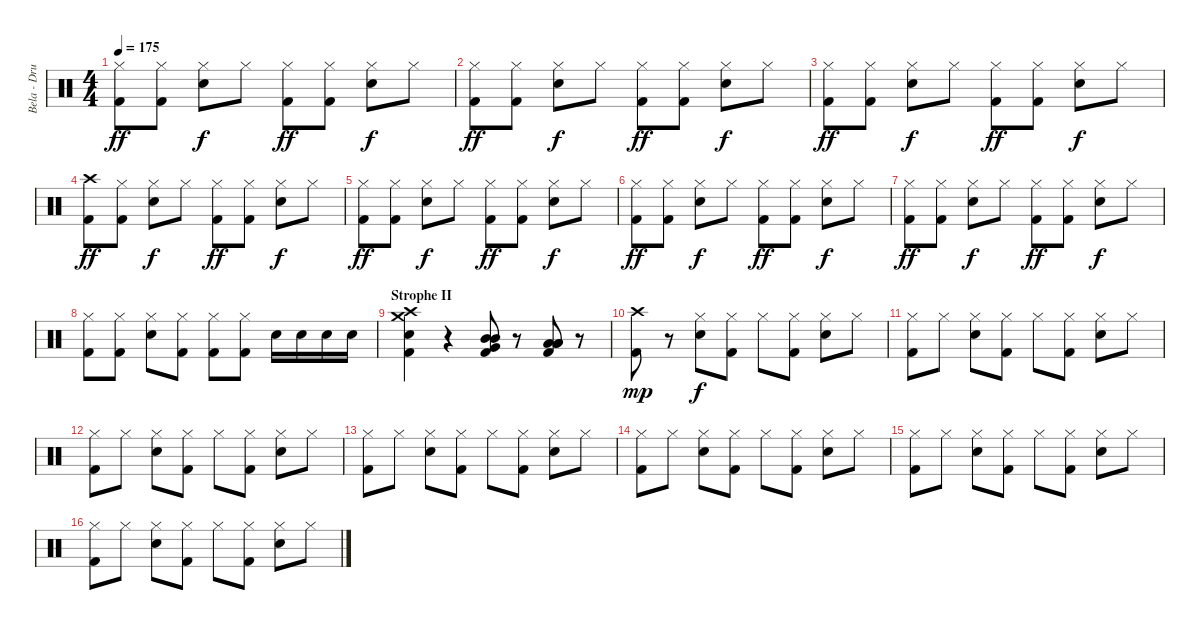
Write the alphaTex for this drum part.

\track ("Bela - Drums" "Bela - Dru") {instrument percussion}
\staff {score}
\articulation defaults
\ts (4 4)
\tempo 175
\clef neutral
\ks c
("Hi-Hat (closed)" "Kick (hit) 2").8{dy ff} ("Hi-Hat (closed)" "Kick (hit) 2").8 ("Hi-Hat (closed)" "Electric Snare (hit)").8{dy f} "Hi-Hat (closed)".8 ("Hi-Hat (closed)" "Kick (hit) 2").8{dy ff} ("Hi-Hat (closed)" "Kick (hit) 2").8 ("Hi-Hat (closed)" "Electric Snare (hit)").8{dy f} "Hi-Hat (closed)".8 |
("Hi-Hat (closed)" "Kick (hit) 2").8{dy ff} ("Hi-Hat (closed)" "Kick (hit) 2").8 ("Hi-Hat (closed)" "Electric Snare (hit)").8{dy f} "Hi-Hat (closed)".8 ("Hi-Hat (closed)" "Kick (hit) 2").8{dy ff} ("Hi-Hat (closed)" "Kick (hit) 2").8 ("Hi-Hat (closed)" "Electric Snare (hit)").8{dy f} "Hi-Hat (closed)".8 |
("Hi-Hat (closed)" "Kick (hit) 2").8{dy ff} ("Hi-Hat (closed)" "Kick (hit) 2").8 ("Hi-Hat (closed)" "Electric Snare (hit)").8{dy f} "Hi-Hat (closed)".8 ("Hi-Hat (closed)" "Kick (hit) 2").8{dy ff} ("Hi-Hat (closed)" "Kick (hit) 2").8 ("Hi-Hat (closed)" "Electric Snare (hit)").8{dy f} "Hi-Hat (closed)".8 |
("Crash high (hit)" "Kick (hit) 2").8{dy ff} ("Hi-Hat (closed)" "Kick (hit) 2").8 ("Hi-Hat (closed)" "Electric Snare (hit)").8{dy f} "Hi-Hat (closed)".8 ("Hi-Hat (closed)" "Kick (hit) 2").8{dy ff} ("Hi-Hat (closed)" "Kick (hit) 2").8 ("Hi-Hat (closed)" "Electric Snare (hit)").8{dy f} "Hi-Hat (closed)".8 |
("Hi-Hat (closed)" "Kick (hit) 2").8{dy ff} ("Hi-Hat (closed)" "Kick (hit) 2").8 ("Hi-Hat (closed)" "Electric Snare (hit)").8{dy f} "Hi-Hat (closed)".8 ("Hi-Hat (closed)" "Kick (hit) 2").8{dy ff} ("Hi-Hat (closed)" "Kick (hit) 2").8 ("Hi-Hat (closed)" "Electric Snare (hit)").8{dy f} "Hi-Hat (closed)".8 |
("Hi-Hat (closed)" "Kick (hit) 2").8{dy ff} ("Hi-Hat (closed)" "Kick (hit) 2").8 ("Hi-Hat (closed)" "Electric Snare (hit)").8{dy f} "Hi-Hat (closed)".8 ("Hi-Hat (closed)" "Kick (hit) 2").8{dy ff} ("Hi-Hat (closed)" "Kick (hit) 2").8 ("Hi-Hat (closed)" "Electric Snare (hit)").8{dy f} "Hi-Hat (closed)".8 |
("Hi-Hat (closed)" "Kick (hit) 2").8{dy ff} ("Hi-Hat (closed)" "Kick (hit) 2").8 ("Hi-Hat (closed)" "Electric Snare (hit)").8{dy f} "Hi-Hat (closed)".8 ("Hi-Hat (closed)" "Kick (hit) 2").8{dy ff} ("Hi-Hat (closed)" "Kick (hit) 2").8 ("Hi-Hat (closed)" "Electric Snare (hit)").8{dy f} "Hi-Hat (closed)".8 |
("Hi-Hat (closed)" "Kick (hit) 2").8 ("Hi-Hat (closed)" "Kick (hit) 2").8 ("Hi-Hat (closed)" "Electric Snare (hit)").8 ("Hi-Hat (closed)" "Kick (hit) 2").8 ("Hi-Hat (closed)" "Kick (hit) 2").8 ("Hi-Hat (closed)" "Kick (hit) 2").8 "Electric Snare (hit)".16 "Electric Snare (hit)".16 "Electric Snare (hit)".16 "Electric Snare (hit)".16 |
\section ("" "Strophe II")
("Crash high (hit)" "Electric Snare (hit)" "Crash medium (hit)" "Kick (hit) 2").4 r.4 ("Mid Tom (hit)" "Mid Tom (hit)" "Very Low Tom (hit)" "Kick (hit) 2").8 r.8 ("Low Tom (hit)" "Low Tom (hit)" "Low Floor Tom (hit)" "Kick (hit) 2").8 r.8 |
("Crash high (hit)" "Kick (hit) 2").8{dy mp} r.8 ("Hi-Hat (closed)" "Electric Snare (hit)").8{dy f} ("Hi-Hat (closed)" "Kick (hit) 2").8 "Hi-Hat (closed)".8 ("Hi-Hat (closed)" "Kick (hit) 2").8 ("Hi-Hat (closed)" "Electric Snare (hit)").8 "Hi-Hat (closed)".8 |
("Hi-Hat (closed)" "Kick (hit) 2").8 "Hi-Hat (closed)".8 ("Hi-Hat (closed)" "Electric Snare (hit)").8 ("Hi-Hat (closed)" "Kick (hit) 2").8 "Hi-Hat (closed)".8 ("Hi-Hat (closed)" "Kick (hit) 2").8 ("Hi-Hat (closed)" "Electric Snare (hit)").8 "Hi-Hat (closed)".8 |
("Hi-Hat (closed)" "Kick (hit) 2").8 "Hi-Hat (closed)".8 ("Hi-Hat (closed)" "Electric Snare (hit)").8 ("Hi-Hat (closed)" "Kick (hit) 2").8 "Hi-Hat (closed)".8 ("Hi-Hat (closed)" "Kick (hit) 2").8 ("Hi-Hat (closed)" "Electric Snare (hit)").8 "Hi-Hat (closed)".8 |
("Hi-Hat (closed)" "Kick (hit) 2").8 "Hi-Hat (closed)".8 ("Hi-Hat (closed)" "Electric Snare (hit)").8 ("Hi-Hat (closed)" "Kick (hit) 2").8 "Hi-Hat (closed)".8 ("Hi-Hat (closed)" "Kick (hit) 2").8 ("Hi-Hat (closed)" "Electric Snare (hit)").8 "Hi-Hat (closed)".8 |
("Hi-Hat (closed)" "Kick (hit) 2").8 "Hi-Hat (closed)".8 ("Hi-Hat (closed)" "Electric Snare (hit)").8 ("Hi-Hat (closed)" "Kick (hit) 2").8 "Hi-Hat (closed)".8 ("Hi-Hat (closed)" "Kick (hit) 2").8 ("Hi-Hat (closed)" "Electric Snare (hit)").8 "Hi-Hat (closed)".8 |
("Hi-Hat (closed)" "Kick (hit) 2").8 "Hi-Hat (closed)".8 ("Hi-Hat (closed)" "Electric Snare (hit)").8 ("Hi-Hat (closed)" "Kick (hit) 2").8 "Hi-Hat (closed)".8 ("Hi-Hat (closed)" "Kick (hit) 2").8 ("Hi-Hat (closed)" "Electric Snare (hit)").8 "Hi-Hat (closed)".8 |
("Hi-Hat (closed)" "Kick (hit) 2").8 "Hi-Hat (closed)".8 ("Hi-Hat (closed)" "Electric Snare (hit)").8 ("Hi-Hat (closed)" "Kick (hit) 2").8 "Hi-Hat (closed)".8 ("Hi-Hat (closed)" "Kick (hit) 2").8 ("Hi-Hat (closed)" "Electric Snare (hit)").8 "Hi-Hat (closed)".8
